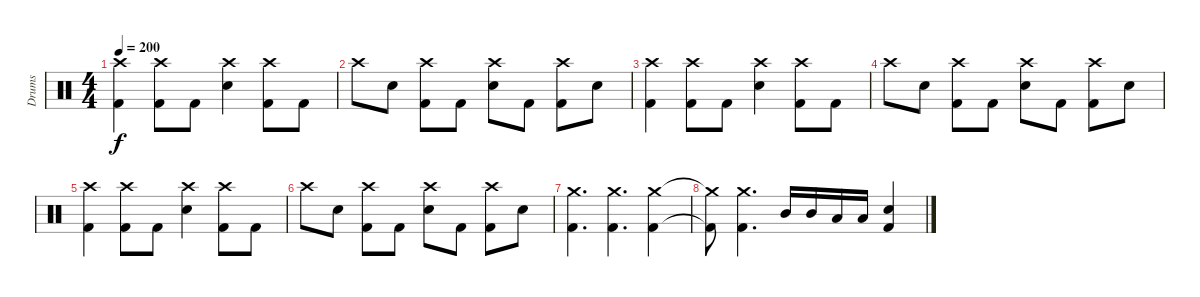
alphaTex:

\track ("Drums" "Drums") {instrument percussion}
\staff {score}
\articulation defaults
\ts (4 4)
\tempo 200
\clef neutral
\ks c
("Crash high (hit)" "Kick (hit) 2").4{dy f} ("Crash high (hit)" "Kick (hit) 2").8 "Kick (hit) 2".8 ("Crash high (hit)" "Snare (hit) 2").4 ("Crash high (hit)" "Kick (hit) 2").8 "Kick (hit) 2".8 |
"Crash high (hit)".8 "Snare (hit) 2".8 ("Crash high (hit)" "Kick (hit) 2").8 "Kick (hit) 2".8 ("Crash high (hit)" "Snare (hit) 2").8 "Kick (hit) 2".8 ("Crash high (hit)" "Kick (hit) 2").8 "Snare (hit) 2".8 |
("Crash high (hit)" "Kick (hit) 2").4 ("Crash high (hit)" "Kick (hit) 2").8 "Kick (hit) 2".8 ("Crash high (hit)" "Snare (hit) 2").4 ("Crash high (hit)" "Kick (hit) 2").8 "Kick (hit) 2".8 |
"Crash high (hit)".8 "Snare (hit) 2".8 ("Crash high (hit)" "Kick (hit) 2").8 "Kick (hit) 2".8 ("Crash high (hit)" "Snare (hit) 2").8 "Kick (hit) 2".8 ("Crash high (hit)" "Kick (hit) 2").8 "Snare (hit) 2".8 |
("Crash high (hit)" "Kick (hit) 2").4 ("Crash high (hit)" "Kick (hit) 2").8 "Kick (hit) 2".8 ("Crash high (hit)" "Snare (hit) 2").4 ("Crash high (hit)" "Kick (hit) 2").8 "Kick (hit) 2".8 |
"Crash high (hit)".8 "Snare (hit) 2".8 ("Crash high (hit)" "Kick (hit) 2").8 "Kick (hit) 2".8 ("Crash high (hit)" "Snare (hit) 2").8 "Kick (hit) 2".8 ("Crash high (hit)" "Kick (hit) 2").8 "Snare (hit) 2".8 |
("Crash medium (hit)" "Kick (hit) 2").4{d} ("Crash medium (hit)" "Kick (hit) 2").4{d} ("Crash medium (hit)" "Kick (hit) 2").4 |
("Crash medium (hit)"{t} "Kick (hit) 2"{t}).8 ("Crash medium (hit)" "Kick (hit) 2").4{d} "Mid Tom (hit)".16 "Mid Tom (hit)".16 "Low Tom (hit)".16 "Low Tom (hit)".16 ("Snare (hit) 2" "Kick (hit) 2").4
